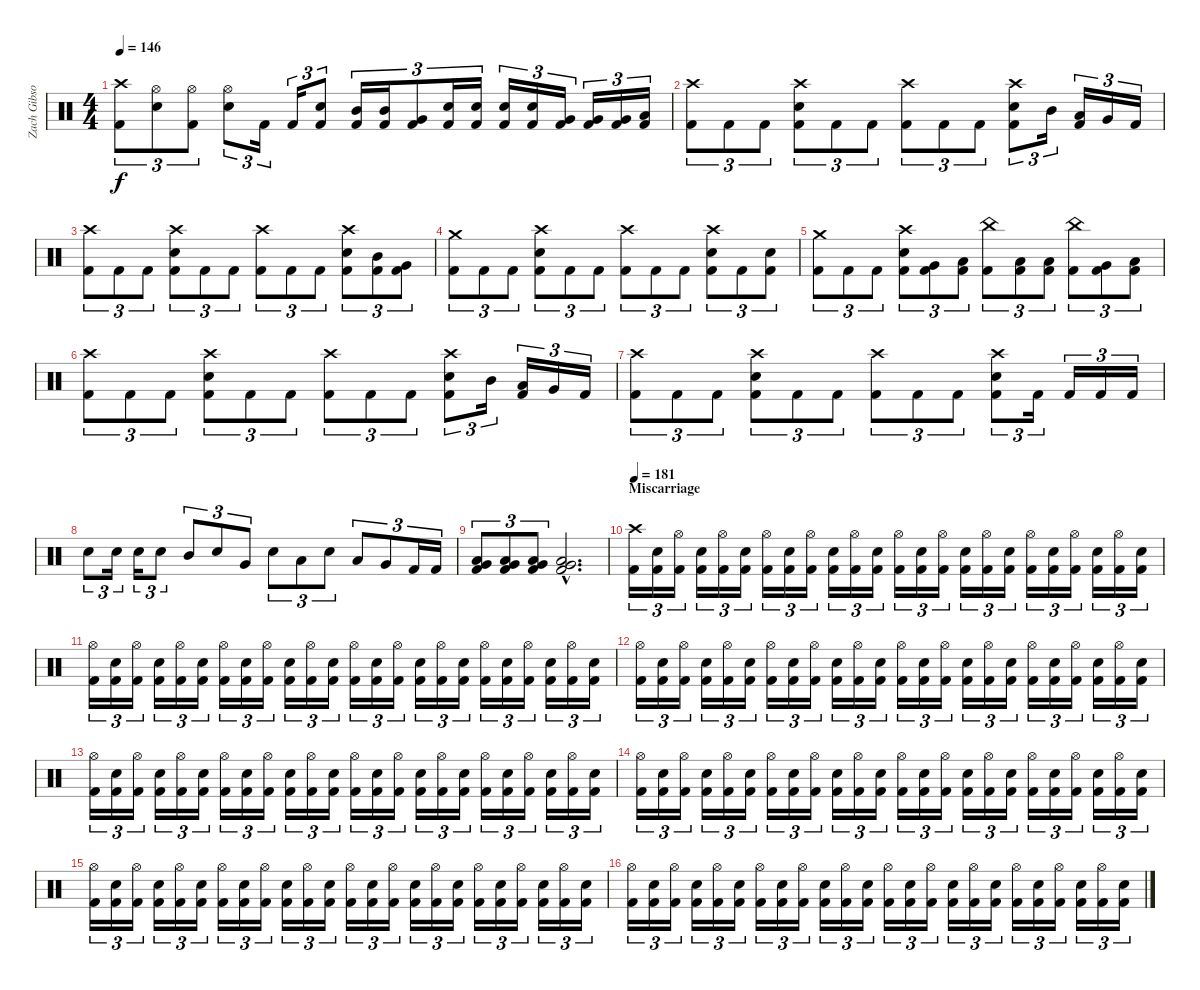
\track ("Zach Gibson (Drums)" "Zach Gibso") {instrument percussion}
\staff {score}
\articulation defaults
\ts (4 4)
\tempo 146
\clef neutral
\ks c
("Crash high (hit)" "Kick (hit) 2").8{tu (3 2) dy f} ("Hi-Hat (open)" "Snare (hit) 2").8{tu (3 2)} ("Hi-Hat (open)" "Kick (hit) 2").8{tu (3 2)} ("Hi-Hat (open)" "Snare (hit) 2").8{tu (3 2)} "Kick (hit) 2".16{tu (3 2)} "Kick (hit) 2".16{tu (3 2)} ("Kick (hit) 2" "Snare (hit) 2").8{tu (3 2)} ("Kick (hit) 2" "Mid Tom (hit)").16{tu (3 2)} ("Kick (hit) 2" "Mid Tom (hit)").16{tu (3 2)} ("Kick (hit) 2" "Very Low Tom (hit)").8{tu (3 2)} ("Kick (hit) 2" "Snare (hit) 2").16{tu (3 2)} ("Kick (hit) 2" "Snare (hit) 2").16{tu (3 2)} ("Kick (hit) 2" "Snare (hit) 2").16{tu (3 2)} ("Kick (hit) 2" "Snare (hit) 2").16{tu (3 2)} ("Kick (hit) 2" "Very Low Tom (hit)").16{tu (3 2)} ("Kick (hit) 2" "Very Low Tom (hit)").16{tu (3 2)} ("Kick (hit) 2" "Very Low Tom (hit)").16{tu (3 2)} ("Kick (hit) 2" "Low Floor Tom (hit)").16{tu (3 2)} |
("Crash high (hit)" "Kick (hit) 2").8{tu (3 2)} "Kick (hit) 2".8{tu (3 2)} "Kick (hit) 2".8{tu (3 2)} ("Crash high (hit)" "Snare (hit) 2" "Kick (hit) 2").8{tu (3 2)} "Kick (hit) 2".8{tu (3 2)} "Kick (hit) 2".8{tu (3 2)} ("Crash high (hit)" "Kick (hit) 2").8{tu (3 2)} "Kick (hit) 2".8{tu (3 2)} "Kick (hit) 2".8{tu (3 2)} ("Crash high (hit)" "Snare (hit) 2" "Kick (hit) 2").8{tu (3 2)} "Mid Tom (hit)".16{tu (3 2)} ("Low Tom (hit)" "Kick (hit) 2").16{tu (3 2)} "Very Low Tom (hit)".16{tu (3 2)} "Kick (hit) 2".16{tu (3 2)} |
("Crash high (hit)" "Kick (hit) 2").8{tu (3 2)} "Kick (hit) 2".8{tu (3 2)} "Kick (hit) 2".8{tu (3 2)} ("Crash high (hit)" "Snare (hit) 2" "Kick (hit) 2").8{tu (3 2)} "Kick (hit) 2".8{tu (3 2)} "Kick (hit) 2".8{tu (3 2)} ("Crash high (hit)" "Kick (hit) 2").8{tu (3 2)} "Kick (hit) 2".8{tu (3 2)} "Kick (hit) 2".8{tu (3 2)} ("Crash high (hit)" "Snare (hit) 2" "Kick (hit) 2").8{tu (3 2)} ("Mid Tom (hit)" "Kick (hit) 2").8{tu (3 2)} ("Very Low Tom (hit)" "Kick (hit) 2").8{tu (3 2)} |
("Crash medium (hit)" "Kick (hit) 2").8{tu (3 2)} "Kick (hit) 2".8{tu (3 2)} "Kick (hit) 2".8{tu (3 2)} ("Crash high (hit)" "Snare (hit) 2" "Kick (hit) 2").8{tu (3 2)} "Kick (hit) 2".8{tu (3 2)} "Kick (hit) 2".8{tu (3 2)} ("Crash high (hit)" "Kick (hit) 2").8{tu (3 2)} "Kick (hit) 2".8{tu (3 2)} "Kick (hit) 2".8{tu (3 2)} ("Crash high (hit)" "Snare (hit) 2" "Kick (hit) 2").8{tu (3 2)} "Kick (hit) 2".8{tu (3 2)} ("Snare (hit) 2" "Kick (hit) 2").8{tu (3 2)} |
("Crash medium (hit)" "Kick (hit) 2").8{tu (3 2)} "Kick (hit) 2".8{tu (3 2)} "Kick (hit) 2".8{tu (3 2)} ("Crash high (hit)" "Snare (hit) 2" "Kick (hit) 2").8{tu (3 2)} ("Very Low Tom (hit)" "Kick (hit) 2").8{tu (3 2)} ("Low Floor Tom (hit)" "Kick (hit) 2").8{tu (3 2)} ("China (hit)" "Kick (hit) 2").8{tu (3 2)} ("Low Tom (hit)" "Kick (hit) 2").8{tu (3 2)} ("Low Floor Tom (hit)" "Kick (hit) 2").8{tu (3 2)} ("China (hit)" "Kick (hit) 2").8{tu (3 2)} ("Very Low Tom (hit)" "Kick (hit) 2").8{tu (3 2)} ("Low Floor Tom (hit)" "Kick (hit) 2").8{tu (3 2)} |
("Crash high (hit)" "Kick (hit) 2").8{tu (3 2)} "Kick (hit) 2".8{tu (3 2)} "Kick (hit) 2".8{tu (3 2)} ("Crash high (hit)" "Snare (hit) 2" "Kick (hit) 2").8{tu (3 2)} "Kick (hit) 2".8{tu (3 2)} "Kick (hit) 2".8{tu (3 2)} ("Crash high (hit)" "Kick (hit) 2").8{tu (3 2)} "Kick (hit) 2".8{tu (3 2)} "Kick (hit) 2".8{tu (3 2)} ("Crash high (hit)" "Snare (hit) 2" "Kick (hit) 2").8{tu (3 2)} "Mid Tom (hit)".16{tu (3 2)} ("Low Tom (hit)" "Kick (hit) 2").16{tu (3 2)} "Very Low Tom (hit)".16{tu (3 2)} "Kick (hit) 2".16{tu (3 2)} |
("Crash high (hit)" "Kick (hit) 2").8{tu (3 2)} "Kick (hit) 2".8{tu (3 2)} "Kick (hit) 2".8{tu (3 2)} ("Crash high (hit)" "Snare (hit) 2" "Kick (hit) 2").8{tu (3 2)} "Kick (hit) 2".8{tu (3 2)} "Kick (hit) 2".8{tu (3 2)} ("Crash high (hit)" "Kick (hit) 2").8{tu (3 2)} "Kick (hit) 2".8{tu (3 2)} "Kick (hit) 2".8{tu (3 2)} ("Crash high (hit)" "Snare (hit) 2" "Kick (hit) 2").8{tu (3 2)} "Kick (hit) 2".16{tu (3 2)} "Kick (hit) 2".16{tu (3 2)} "Kick (hit) 2".16{tu (3 2)} "Kick (hit) 2".16{tu (3 2)} |
"Snare (hit) 2".8{tu (3 2)} "Snare (hit) 2".16{tu (3 2)} "Snare (hit) 2".16{tu (3 2)} "Snare (hit) 2".8{tu (3 2)} "Mid Tom (hit)".8{tu (3 2)} "Snare (hit) 2".8{tu (3 2)} "Very Low Tom (hit)".8{tu (3 2)} "Snare (hit) 2".8{tu (3 2)} "Low Floor Tom (hit)".8{tu (3 2)} "Snare (hit) 2".8{tu (3 2)} "Low Tom (hit)".8{tu (3 2)} "Very Low Tom (hit)".8{tu (3 2)} "Kick (hit) 2".16{tu (3 2)} "Kick (hit) 2".16{tu (3 2)} |
("Very Low Tom (hit)" "Low Floor Tom (hit)" "Kick (hit) 2").8{tu (3 2)} ("Very Low Tom (hit)" "Low Floor Tom (hit)" "Kick (hit) 2").8{tu (3 2)} ("Very Low Tom (hit)" "Low Floor Tom (hit)" "Kick (hit) 2").8{tu (3 2)} ("Very Low Tom (hit)"{hac} "Low Floor Tom (hit)"{hac} "Kick (hit) 2"{hac}).2{d} |
\section ("" "Miscarriage")
\tempo 181
("Crash high (hit)" "Kick (hit) 2").16{tu (3 2)} ("Snare (hit) 2" "Kick (hit) 2").16{tu (3 2)} ("Hi-Hat (open)" "Kick (hit) 2").16{tu (3 2)} ("Snare (hit) 2" "Kick (hit) 2").16{tu (3 2)} ("Hi-Hat (open)" "Kick (hit) 2").16{tu (3 2)} ("Snare (hit) 2" "Kick (hit) 2").16{tu (3 2)} ("Hi-Hat (open)" "Kick (hit) 2").16{tu (3 2)} ("Snare (hit) 2" "Kick (hit) 2").16{tu (3 2)} ("Hi-Hat (open)" "Kick (hit) 2").16{tu (3 2)} ("Snare (hit) 2" "Kick (hit) 2").16{tu (3 2)} ("Hi-Hat (open)" "Kick (hit) 2").16{tu (3 2)} ("Snare (hit) 2" "Kick (hit) 2").16{tu (3 2)} ("Hi-Hat (open)" "Kick (hit) 2").16{tu (3 2)} ("Snare (hit) 2" "Kick (hit) 2").16{tu (3 2)} ("Hi-Hat (open)" "Kick (hit) 2").16{tu (3 2)} ("Snare (hit) 2" "Kick (hit) 2").16{tu (3 2)} ("Hi-Hat (open)" "Kick (hit) 2").16{tu (3 2)} ("Snare (hit) 2" "Kick (hit) 2").16{tu (3 2)} ("Hi-Hat (open)" "Kick (hit) 2").16{tu (3 2)} ("Snare (hit) 2" "Kick (hit) 2").16{tu (3 2)} ("Hi-Hat (open)" "Kick (hit) 2").16{tu (3 2)} ("Snare (hit) 2" "Kick (hit) 2").16{tu (3 2)} ("Hi-Hat (open)" "Kick (hit) 2").16{tu (3 2)} ("Snare (hit) 2" "Kick (hit) 2").16{tu (3 2)} |
("Hi-Hat (open)" "Kick (hit) 2").16{tu (3 2)} ("Snare (hit) 2" "Kick (hit) 2").16{tu (3 2)} ("Hi-Hat (open)" "Kick (hit) 2").16{tu (3 2)} ("Snare (hit) 2" "Kick (hit) 2").16{tu (3 2)} ("Hi-Hat (open)" "Kick (hit) 2").16{tu (3 2)} ("Snare (hit) 2" "Kick (hit) 2").16{tu (3 2)} ("Hi-Hat (open)" "Kick (hit) 2").16{tu (3 2)} ("Snare (hit) 2" "Kick (hit) 2").16{tu (3 2)} ("Hi-Hat (open)" "Kick (hit) 2").16{tu (3 2)} ("Snare (hit) 2" "Kick (hit) 2").16{tu (3 2)} ("Hi-Hat (open)" "Kick (hit) 2").16{tu (3 2)} ("Snare (hit) 2" "Kick (hit) 2").16{tu (3 2)} ("Hi-Hat (open)" "Kick (hit) 2").16{tu (3 2)} ("Snare (hit) 2" "Kick (hit) 2").16{tu (3 2)} ("Hi-Hat (open)" "Kick (hit) 2").16{tu (3 2)} ("Snare (hit) 2" "Kick (hit) 2").16{tu (3 2)} ("Hi-Hat (open)" "Kick (hit) 2").16{tu (3 2)} ("Snare (hit) 2" "Kick (hit) 2").16{tu (3 2)} ("Hi-Hat (open)" "Kick (hit) 2").16{tu (3 2)} ("Snare (hit) 2" "Kick (hit) 2").16{tu (3 2)} ("Hi-Hat (open)" "Kick (hit) 2").16{tu (3 2)} ("Snare (hit) 2" "Kick (hit) 2").16{tu (3 2)} ("Hi-Hat (open)" "Kick (hit) 2").16{tu (3 2)} ("Snare (hit) 2" "Kick (hit) 2").16{tu (3 2)} |
("Hi-Hat (open)" "Kick (hit) 2").16{tu (3 2)} ("Snare (hit) 2" "Kick (hit) 2").16{tu (3 2)} ("Hi-Hat (open)" "Kick (hit) 2").16{tu (3 2)} ("Snare (hit) 2" "Kick (hit) 2").16{tu (3 2)} ("Hi-Hat (open)" "Kick (hit) 2").16{tu (3 2)} ("Snare (hit) 2" "Kick (hit) 2").16{tu (3 2)} ("Hi-Hat (open)" "Kick (hit) 2").16{tu (3 2)} ("Snare (hit) 2" "Kick (hit) 2").16{tu (3 2)} ("Hi-Hat (open)" "Kick (hit) 2").16{tu (3 2)} ("Snare (hit) 2" "Kick (hit) 2").16{tu (3 2)} ("Hi-Hat (open)" "Kick (hit) 2").16{tu (3 2)} ("Snare (hit) 2" "Kick (hit) 2").16{tu (3 2)} ("Hi-Hat (open)" "Kick (hit) 2").16{tu (3 2)} ("Snare (hit) 2" "Kick (hit) 2").16{tu (3 2)} ("Hi-Hat (open)" "Kick (hit) 2").16{tu (3 2)} ("Snare (hit) 2" "Kick (hit) 2").16{tu (3 2)} ("Hi-Hat (open)" "Kick (hit) 2").16{tu (3 2)} ("Snare (hit) 2" "Kick (hit) 2").16{tu (3 2)} ("Hi-Hat (open)" "Kick (hit) 2").16{tu (3 2)} ("Snare (hit) 2" "Kick (hit) 2").16{tu (3 2)} ("Hi-Hat (open)" "Kick (hit) 2").16{tu (3 2)} ("Snare (hit) 2" "Kick (hit) 2").16{tu (3 2)} ("Hi-Hat (open)" "Kick (hit) 2").16{tu (3 2)} ("Snare (hit) 2" "Kick (hit) 2").16{tu (3 2)} |
("Hi-Hat (open)" "Kick (hit) 2").16{tu (3 2)} ("Snare (hit) 2" "Kick (hit) 2").16{tu (3 2)} ("Hi-Hat (open)" "Kick (hit) 2").16{tu (3 2)} ("Snare (hit) 2" "Kick (hit) 2").16{tu (3 2)} ("Hi-Hat (open)" "Kick (hit) 2").16{tu (3 2)} ("Snare (hit) 2" "Kick (hit) 2").16{tu (3 2)} ("Hi-Hat (open)" "Kick (hit) 2").16{tu (3 2)} ("Snare (hit) 2" "Kick (hit) 2").16{tu (3 2)} ("Hi-Hat (open)" "Kick (hit) 2").16{tu (3 2)} ("Snare (hit) 2" "Kick (hit) 2").16{tu (3 2)} ("Hi-Hat (open)" "Kick (hit) 2").16{tu (3 2)} ("Snare (hit) 2" "Kick (hit) 2").16{tu (3 2)} ("Hi-Hat (open)" "Kick (hit) 2").16{tu (3 2)} ("Snare (hit) 2" "Kick (hit) 2").16{tu (3 2)} ("Hi-Hat (open)" "Kick (hit) 2").16{tu (3 2)} ("Snare (hit) 2" "Kick (hit) 2").16{tu (3 2)} ("Hi-Hat (open)" "Kick (hit) 2").16{tu (3 2)} ("Snare (hit) 2" "Kick (hit) 2").16{tu (3 2)} ("Hi-Hat (open)" "Kick (hit) 2").16{tu (3 2)} ("Snare (hit) 2" "Kick (hit) 2").16{tu (3 2)} ("Hi-Hat (open)" "Kick (hit) 2").16{tu (3 2)} ("Snare (hit) 2" "Kick (hit) 2").16{tu (3 2)} ("Hi-Hat (open)" "Kick (hit) 2").16{tu (3 2)} ("Snare (hit) 2" "Kick (hit) 2").16{tu (3 2)} |
("Hi-Hat (open)" "Kick (hit) 2").16{tu (3 2)} ("Snare (hit) 2" "Kick (hit) 2").16{tu (3 2)} ("Hi-Hat (open)" "Kick (hit) 2").16{tu (3 2)} ("Snare (hit) 2" "Kick (hit) 2").16{tu (3 2)} ("Hi-Hat (open)" "Kick (hit) 2").16{tu (3 2)} ("Snare (hit) 2" "Kick (hit) 2").16{tu (3 2)} ("Hi-Hat (open)" "Kick (hit) 2").16{tu (3 2)} ("Snare (hit) 2" "Kick (hit) 2").16{tu (3 2)} ("Hi-Hat (open)" "Kick (hit) 2").16{tu (3 2)} ("Snare (hit) 2" "Kick (hit) 2").16{tu (3 2)} ("Hi-Hat (open)" "Kick (hit) 2").16{tu (3 2)} ("Snare (hit) 2" "Kick (hit) 2").16{tu (3 2)} ("Hi-Hat (open)" "Kick (hit) 2").16{tu (3 2)} ("Snare (hit) 2" "Kick (hit) 2").16{tu (3 2)} ("Hi-Hat (open)" "Kick (hit) 2").16{tu (3 2)} ("Snare (hit) 2" "Kick (hit) 2").16{tu (3 2)} ("Hi-Hat (open)" "Kick (hit) 2").16{tu (3 2)} ("Snare (hit) 2" "Kick (hit) 2").16{tu (3 2)} ("Hi-Hat (open)" "Kick (hit) 2").16{tu (3 2)} ("Snare (hit) 2" "Kick (hit) 2").16{tu (3 2)} ("Hi-Hat (open)" "Kick (hit) 2").16{tu (3 2)} ("Snare (hit) 2" "Kick (hit) 2").16{tu (3 2)} ("Hi-Hat (open)" "Kick (hit) 2").16{tu (3 2)} ("Snare (hit) 2" "Kick (hit) 2").16{tu (3 2)} |
("Hi-Hat (open)" "Kick (hit) 2").16{tu (3 2)} ("Snare (hit) 2" "Kick (hit) 2").16{tu (3 2)} ("Hi-Hat (open)" "Kick (hit) 2").16{tu (3 2)} ("Snare (hit) 2" "Kick (hit) 2").16{tu (3 2)} ("Hi-Hat (open)" "Kick (hit) 2").16{tu (3 2)} ("Snare (hit) 2" "Kick (hit) 2").16{tu (3 2)} ("Hi-Hat (open)" "Kick (hit) 2").16{tu (3 2)} ("Snare (hit) 2" "Kick (hit) 2").16{tu (3 2)} ("Hi-Hat (open)" "Kick (hit) 2").16{tu (3 2)} ("Snare (hit) 2" "Kick (hit) 2").16{tu (3 2)} ("Hi-Hat (open)" "Kick (hit) 2").16{tu (3 2)} ("Snare (hit) 2" "Kick (hit) 2").16{tu (3 2)} ("Hi-Hat (open)" "Kick (hit) 2").16{tu (3 2)} ("Snare (hit) 2" "Kick (hit) 2").16{tu (3 2)} ("Hi-Hat (open)" "Kick (hit) 2").16{tu (3 2)} ("Snare (hit) 2" "Kick (hit) 2").16{tu (3 2)} ("Hi-Hat (open)" "Kick (hit) 2").16{tu (3 2)} ("Snare (hit) 2" "Kick (hit) 2").16{tu (3 2)} ("Hi-Hat (open)" "Kick (hit) 2").16{tu (3 2)} ("Snare (hit) 2" "Kick (hit) 2").16{tu (3 2)} ("Hi-Hat (open)" "Kick (hit) 2").16{tu (3 2)} ("Snare (hit) 2" "Kick (hit) 2").16{tu (3 2)} ("Hi-Hat (open)" "Kick (hit) 2").16{tu (3 2)} ("Snare (hit) 2" "Kick (hit) 2").16{tu (3 2)} |
("Hi-Hat (open)" "Kick (hit) 2").16{tu (3 2)} ("Snare (hit) 2" "Kick (hit) 2").16{tu (3 2)} ("Hi-Hat (open)" "Kick (hit) 2").16{tu (3 2)} ("Snare (hit) 2" "Kick (hit) 2").16{tu (3 2)} ("Hi-Hat (open)" "Kick (hit) 2").16{tu (3 2)} ("Snare (hit) 2" "Kick (hit) 2").16{tu (3 2)} ("Hi-Hat (open)" "Kick (hit) 2").16{tu (3 2)} ("Snare (hit) 2" "Kick (hit) 2").16{tu (3 2)} ("Hi-Hat (open)" "Kick (hit) 2").16{tu (3 2)} ("Snare (hit) 2" "Kick (hit) 2").16{tu (3 2)} ("Hi-Hat (open)" "Kick (hit) 2").16{tu (3 2)} ("Snare (hit) 2" "Kick (hit) 2").16{tu (3 2)} ("Hi-Hat (open)" "Kick (hit) 2").16{tu (3 2)} ("Snare (hit) 2" "Kick (hit) 2").16{tu (3 2)} ("Hi-Hat (open)" "Kick (hit) 2").16{tu (3 2)} ("Snare (hit) 2" "Kick (hit) 2").16{tu (3 2)} ("Hi-Hat (open)" "Kick (hit) 2").16{tu (3 2)} ("Snare (hit) 2" "Kick (hit) 2").16{tu (3 2)} ("Hi-Hat (open)" "Kick (hit) 2").16{tu (3 2)} ("Snare (hit) 2" "Kick (hit) 2").16{tu (3 2)} ("Hi-Hat (open)" "Kick (hit) 2").16{tu (3 2)} ("Snare (hit) 2" "Kick (hit) 2").16{tu (3 2)} ("Hi-Hat (open)" "Kick (hit) 2").16{tu (3 2)} ("Snare (hit) 2" "Kick (hit) 2").16{tu (3 2)}
